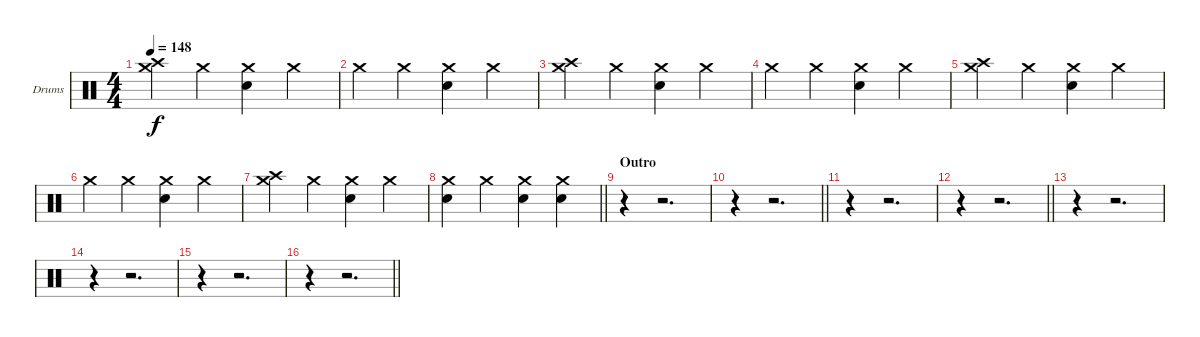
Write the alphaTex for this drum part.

\bracketExtendMode groupsimilarinstruments
\firstSystemTrackNameOrientation horizontal
\otherSystemsTrackNameOrientation horizontal
\track ("Drumkit" "Drums") {instrument percussion}
\staff {score}
\articulation defaults
\ts (4 4)
\tempo 148
\clef neutral
\ks c
("Crash medium (hit)" "Crash high (hit)").4{dy f} "Crash medium (hit)".4 ("Crash medium (hit)" "Snare (hit) 2").4 "Crash medium (hit)".4 |
"Crash medium (hit)".4 "Crash medium (hit)".4 ("Crash medium (hit)" "Snare (hit) 2").4 "Crash medium (hit)".4 |
("Crash medium (hit)" "Crash high (hit)").4 "Crash medium (hit)".4 ("Crash medium (hit)" "Snare (hit) 2").4 "Crash medium (hit)".4 |
"Crash medium (hit)".4 "Crash medium (hit)".4 ("Crash medium (hit)" "Snare (hit) 2").4 "Crash medium (hit)".4 |
("Crash medium (hit)" "Crash high (hit)").4 "Crash medium (hit)".4 ("Crash medium (hit)" "Snare (hit) 2").4 "Crash medium (hit)".4 |
"Crash medium (hit)".4 "Crash medium (hit)".4 ("Crash medium (hit)" "Snare (hit) 2").4 "Crash medium (hit)".4 |
("Crash medium (hit)" "Crash high (hit)").4 "Crash medium (hit)".4 ("Crash medium (hit)" "Snare (hit) 2").4 "Crash medium (hit)".4 |
\barLineRight lightlight
("Crash medium (hit)" "Snare (hit) 2").4 "Crash medium (hit)".4 ("Crash medium (hit)" "Snare (hit) 2").4 ("Crash medium (hit)" "Snare (hit) 2").4 |
\section ("" "Outro")
r.4 r.2{d} |
\barLineRight lightlight
r.4 r.2{d} |
r.4 r.2{d} |
\barLineRight lightlight
r.4 r.2{d} |
r.4 r.2{d} |
r.4 r.2{d} |
r.4 r.2{d} |
\barLineRight lightlight
r.4 r.2{d}
